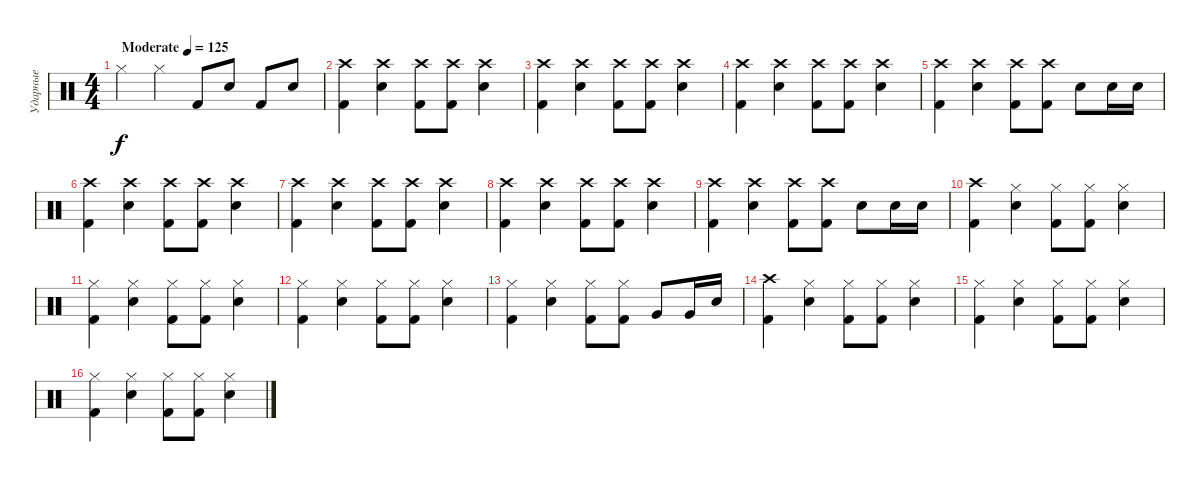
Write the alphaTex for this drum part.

\track ("Ударные" "Ударные") {instrument percussion}
\staff {score}
\articulation defaults
\ts (4 4)
\tempo (125 "Moderate")
\clef neutral
\ks c "Hi-Hat (closed)".4{dy f} "Hi-Hat (closed)".4 "Kick (hit) 2".8 "Snare (hit) 2".8 "Kick (hit) 2".8 "Snare (hit) 2".8
|
("Crash high (hit)" "Kick (hit) 2").4 ("Crash high (hit)" "Snare (hit) 2").4 ("Crash high (hit)" "Kick (hit) 2").8 ("Crash high (hit)" "Kick (hit) 2").8 ("Crash high (hit)" "Snare (hit) 2").4 |
("Crash high (hit)" "Kick (hit) 2").4 ("Crash high (hit)" "Snare (hit) 2").4 ("Crash high (hit)" "Kick (hit) 2").8 ("Crash high (hit)" "Kick (hit) 2").8 ("Crash high (hit)" "Snare (hit) 2").4 |
("Crash high (hit)" "Kick (hit) 2").4 ("Crash high (hit)" "Snare (hit) 2").4 ("Crash high (hit)" "Kick (hit) 2").8 ("Crash high (hit)" "Kick (hit) 2").8 ("Crash high (hit)" "Snare (hit) 2").4 |
("Crash high (hit)" "Kick (hit) 2").4 ("Crash high (hit)" "Snare (hit) 2").4 ("Crash high (hit)" "Kick (hit) 2").8 ("Crash high (hit)" "Kick (hit) 2").8 "Snare (hit) 2".8 "Snare (hit) 2".16 "Snare (hit) 2".16 |
("Crash high (hit)" "Kick (hit) 2").4 ("Crash high (hit)" "Snare (hit) 2").4 ("Crash high (hit)" "Kick (hit) 2").8 ("Crash high (hit)" "Kick (hit) 2").8 ("Crash high (hit)" "Snare (hit) 2").4 |
("Crash high (hit)" "Kick (hit) 2").4 ("Crash high (hit)" "Snare (hit) 2").4 ("Crash high (hit)" "Kick (hit) 2").8 ("Crash high (hit)" "Kick (hit) 2").8 ("Crash high (hit)" "Snare (hit) 2").4 |
("Crash high (hit)" "Kick (hit) 2").4 ("Crash high (hit)" "Snare (hit) 2").4 ("Crash high (hit)" "Kick (hit) 2").8 ("Crash high (hit)" "Kick (hit) 2").8 ("Crash high (hit)" "Snare (hit) 2").4 |
("Crash high (hit)" "Kick (hit) 2").4 ("Crash high (hit)" "Snare (hit) 2").4 ("Crash high (hit)" "Kick (hit) 2").8 ("Crash high (hit)" "Kick (hit) 2").8 "Snare (hit) 2".8 "Snare (hit) 2".16 "Snare (hit) 2".16 |
("Crash high (hit)" "Kick (hit) 2").4 ("Hi-Hat (closed)" "Snare (hit) 2").4 ("Hi-Hat (closed)" "Kick (hit) 2").8 ("Hi-Hat (closed)" "Kick (hit) 2").8 ("Hi-Hat (closed)" "Snare (hit) 2").4 |
("Hi-Hat (closed)" "Kick (hit) 2").4 ("Hi-Hat (closed)" "Snare (hit) 2").4 ("Hi-Hat (closed)" "Kick (hit) 2").8 ("Hi-Hat (closed)" "Kick (hit) 2").8 ("Hi-Hat (closed)" "Snare (hit) 2").4 |
("Hi-Hat (closed)" "Kick (hit) 2").4 ("Hi-Hat (closed)" "Snare (hit) 2").4 ("Hi-Hat (closed)" "Kick (hit) 2").8 ("Hi-Hat (closed)" "Kick (hit) 2").8 ("Hi-Hat (closed)" "Snare (hit) 2").4 |
("Hi-Hat (closed)" "Kick (hit) 2").4 ("Hi-Hat (closed)" "Snare (hit) 2").4 ("Hi-Hat (closed)" "Kick (hit) 2").8 ("Hi-Hat (closed)" "Kick (hit) 2").8 "Very Low Tom (hit)".8 "Very Low Tom (hit)".16 "Snare (hit) 2".16 |
("Crash high (hit)" "Kick (hit) 2").4 ("Hi-Hat (closed)" "Snare (hit) 2").4 ("Hi-Hat (closed)" "Kick (hit) 2").8 ("Hi-Hat (closed)" "Kick (hit) 2").8 ("Hi-Hat (closed)" "Snare (hit) 2").4 |
("Hi-Hat (closed)" "Kick (hit) 2").4 ("Hi-Hat (closed)" "Snare (hit) 2").4 ("Hi-Hat (closed)" "Kick (hit) 2").8 ("Hi-Hat (closed)" "Kick (hit) 2").8 ("Hi-Hat (closed)" "Snare (hit) 2").4 |
("Hi-Hat (closed)" "Kick (hit) 2").4 ("Hi-Hat (closed)" "Snare (hit) 2").4 ("Hi-Hat (closed)" "Kick (hit) 2").8 ("Hi-Hat (closed)" "Kick (hit) 2").8 ("Hi-Hat (closed)" "Snare (hit) 2").4
